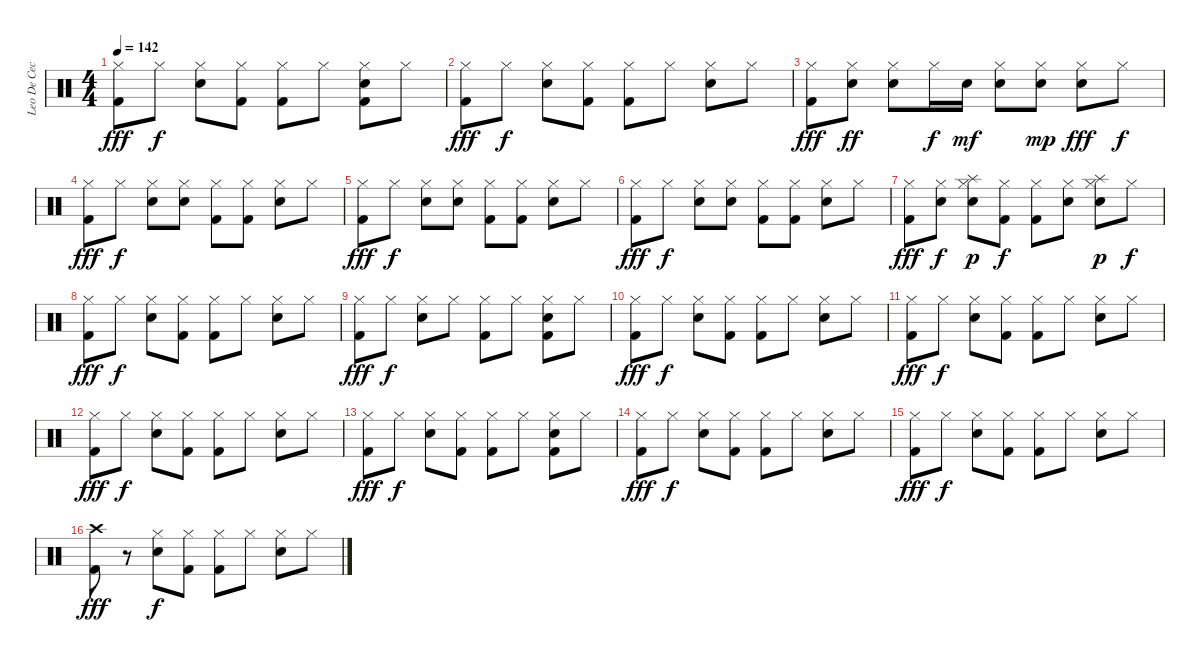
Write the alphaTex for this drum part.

\track ("Leo De Cecco" "Leo De Cec") {instrument percussion}
\staff {score}
\articulation defaults
\ts (4 4)
\tempo 142
\clef neutral
\ks c
("Hi-Hat (closed)" "Kick (hit) 2").8{dy fff} "Hi-Hat (closed)".8{dy f} ("Hi-Hat (closed)" "Electric Snare (hit)").8 ("Hi-Hat (closed)" "Kick (hit) 2").8 ("Hi-Hat (closed)" "Kick (hit) 2").8 "Hi-Hat (closed)".8 ("Hi-Hat (closed)" "Electric Snare (hit)" "Kick (hit) 2").8 "Hi-Hat (closed)".8 |
("Hi-Hat (closed)" "Kick (hit) 2").8{dy fff} "Hi-Hat (closed)".8{dy f} ("Hi-Hat (closed)" "Electric Snare (hit)").8 ("Hi-Hat (closed)" "Kick (hit) 2").8 ("Hi-Hat (closed)" "Kick (hit) 2").8 "Hi-Hat (closed)".8 ("Hi-Hat (closed)" "Electric Snare (hit)").8 "Hi-Hat (closed)".8 |
("Hi-Hat (closed)" "Kick (hit) 2").8{dy fff} ("Hi-Hat (closed)" "Electric Snare (hit)").8{dy ff} ("Hi-Hat (closed)" "Electric Snare (hit)").8 "Hi-Hat (closed)".16{dy f} "Electric Snare (hit)".16{dy mf} ("Hi-Hat (closed)" "Electric Snare (hit)").8 ("Hi-Hat (closed)" "Electric Snare (hit)").8{dy mp} ("Hi-Hat (closed)" "Electric Snare (hit)").8{dy fff} "Hi-Hat (closed)".8{dy f} |
("Hi-Hat (closed)" "Kick (hit) 2").8{dy fff} "Hi-Hat (closed)".8{dy f} ("Hi-Hat (closed)" "Electric Snare (hit)").8 ("Hi-Hat (closed)" "Electric Snare (hit)").8 ("Hi-Hat (closed)" "Kick (hit) 2").8 ("Hi-Hat (closed)" "Kick (hit) 2").8 ("Hi-Hat (closed)" "Electric Snare (hit)").8 "Hi-Hat (closed)".8 |
("Hi-Hat (closed)" "Kick (hit) 2").8{dy fff} "Hi-Hat (closed)".8{dy f} ("Hi-Hat (closed)" "Electric Snare (hit)").8 ("Hi-Hat (closed)" "Electric Snare (hit)").8 ("Hi-Hat (closed)" "Kick (hit) 2").8 ("Hi-Hat (closed)" "Kick (hit) 2").8 ("Hi-Hat (closed)" "Electric Snare (hit)").8 "Hi-Hat (closed)".8 |
("Hi-Hat (closed)" "Kick (hit) 2").8{dy fff} "Hi-Hat (closed)".8{dy f} ("Hi-Hat (closed)" "Electric Snare (hit)").8 ("Hi-Hat (closed)" "Electric Snare (hit)").8 ("Hi-Hat (closed)" "Kick (hit) 2").8 ("Hi-Hat (closed)" "Kick (hit) 2").8 ("Hi-Hat (closed)" "Electric Snare (hit)").8 "Hi-Hat (closed)".8 |
("Hi-Hat (closed)" "Kick (hit) 2").8{dy fff} ("Hi-Hat (closed)" "Electric Snare (hit)").8{dy f} ("Splash (hit)" "Hi-Hat (closed)" "Electric Snare (hit)").8{dy p} ("Hi-Hat (closed)" "Kick (hit) 2").8{dy f} ("Hi-Hat (closed)" "Kick (hit) 2").8 ("Hi-Hat (closed)" "Electric Snare (hit)").8 ("Splash (hit)" "Hi-Hat (closed)" "Electric Snare (hit)").8{dy p} "Hi-Hat (closed)".8{dy f} |
("Hi-Hat (closed)" "Kick (hit) 2").8{dy fff} "Hi-Hat (closed)".8{dy f} ("Hi-Hat (closed)" "Electric Snare (hit)").8 ("Hi-Hat (closed)" "Kick (hit) 2").8 ("Hi-Hat (closed)" "Kick (hit) 2").8 "Hi-Hat (closed)".8 ("Hi-Hat (closed)" "Electric Snare (hit)").8 "Hi-Hat (closed)".8 |
("Hi-Hat (closed)" "Kick (hit) 2").8{dy fff} "Hi-Hat (closed)".8{dy f} ("Hi-Hat (closed)" "Electric Snare (hit)").8 "Hi-Hat (closed)".8 ("Hi-Hat (closed)" "Kick (hit) 2").8 "Hi-Hat (closed)".8 ("Hi-Hat (closed)" "Electric Snare (hit)" "Kick (hit) 2").8 "Hi-Hat (closed)".8 |
("Hi-Hat (closed)" "Kick (hit) 2").8{dy fff} "Hi-Hat (closed)".8{dy f} ("Hi-Hat (closed)" "Electric Snare (hit)").8 ("Hi-Hat (closed)" "Kick (hit) 2").8 ("Hi-Hat (closed)" "Kick (hit) 2").8 "Hi-Hat (closed)".8 ("Hi-Hat (closed)" "Electric Snare (hit)").8 "Hi-Hat (closed)".8 |
("Hi-Hat (closed)" "Kick (hit) 2").8{dy fff} "Hi-Hat (closed)".8{dy f} ("Hi-Hat (closed)" "Electric Snare (hit)").8 ("Hi-Hat (closed)" "Kick (hit) 2").8 ("Hi-Hat (closed)" "Kick (hit) 2").8 "Hi-Hat (closed)".8 ("Hi-Hat (closed)" "Electric Snare (hit)").8 "Hi-Hat (closed)".8 |
("Hi-Hat (closed)" "Kick (hit) 2").8{dy fff} "Hi-Hat (closed)".8{dy f} ("Hi-Hat (closed)" "Electric Snare (hit)").8 ("Hi-Hat (closed)" "Kick (hit) 2").8 ("Hi-Hat (closed)" "Kick (hit) 2").8 "Hi-Hat (closed)".8 ("Hi-Hat (closed)" "Electric Snare (hit)").8 "Hi-Hat (closed)".8 |
("Hi-Hat (closed)" "Kick (hit) 2").8{dy fff} "Hi-Hat (closed)".8{dy f} ("Hi-Hat (closed)" "Electric Snare (hit)").8 ("Hi-Hat (closed)" "Kick (hit) 2").8 ("Hi-Hat (closed)" "Kick (hit) 2").8 "Hi-Hat (closed)".8 ("Hi-Hat (closed)" "Electric Snare (hit)" "Kick (hit) 2").8 "Hi-Hat (closed)".8 |
("Hi-Hat (closed)" "Kick (hit) 2").8{dy fff} "Hi-Hat (closed)".8{dy f} ("Hi-Hat (closed)" "Electric Snare (hit)").8 ("Hi-Hat (closed)" "Kick (hit) 2").8 ("Hi-Hat (closed)" "Kick (hit) 2").8 "Hi-Hat (closed)".8 ("Hi-Hat (closed)" "Electric Snare (hit)").8 "Hi-Hat (closed)".8 |
("Hi-Hat (closed)" "Kick (hit) 2").8{dy fff} "Hi-Hat (closed)".8{dy f} ("Hi-Hat (closed)" "Electric Snare (hit)").8 ("Hi-Hat (closed)" "Kick (hit) 2").8 ("Hi-Hat (closed)" "Kick (hit) 2").8 "Hi-Hat (closed)".8 ("Hi-Hat (closed)" "Electric Snare (hit)").8 "Hi-Hat (closed)".8 |
("Crash high (hit)" "Kick (hit) 2").8{dy fff} r.8 ("Hi-Hat (closed)" "Electric Snare (hit)").8{dy f} ("Hi-Hat (closed)" "Kick (hit) 2").8 ("Hi-Hat (closed)" "Kick (hit) 2").8 "Hi-Hat (closed)".8 ("Hi-Hat (closed)" "Electric Snare (hit)").8 "Hi-Hat (closed)".8
